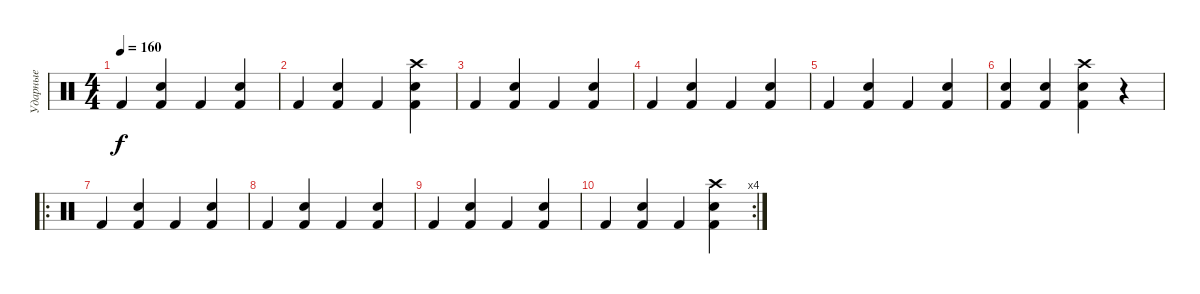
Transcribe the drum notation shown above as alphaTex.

\track ("Ударные" "Ударные") {instrument percussion}
\staff {score}
\articulation defaults
\ts (4 4)
\tempo 160
\clef neutral
\ks c "Kick (hit) 2".4{dy f}
("Kick (hit) 2" "Snare (hit) 2").4 "Kick (hit) 2".4 ("Kick (hit) 2" "Snare (hit) 2").4 |
"Kick (hit) 2".4 ("Kick (hit) 2" "Snare (hit) 2").4 "Kick (hit) 2".4 ("Kick (hit) 2" "Snare (hit) 2" "Crash high (hit)").4 |
"Kick (hit) 2".4 ("Kick (hit) 2" "Snare (hit) 2").4 "Kick (hit) 2".4 ("Kick (hit) 2" "Snare (hit) 2").4 |
"Kick (hit) 2".4 ("Kick (hit) 2" "Snare (hit) 2").4 "Kick (hit) 2".4 ("Kick (hit) 2" "Snare (hit) 2").4 |
"Kick (hit) 2".4 ("Kick (hit) 2" "Snare (hit) 2").4 "Kick (hit) 2".4 ("Kick (hit) 2" "Snare (hit) 2").4 |
("Kick (hit) 2" "Snare (hit) 2").4 ("Kick (hit) 2" "Snare (hit) 2").4 ("Kick (hit) 2" "Snare (hit) 2" "Crash high (hit)").4 r.4 |
\ro "Kick (hit) 2".4
("Kick (hit) 2" "Snare (hit) 2").4 "Kick (hit) 2".4 ("Kick (hit) 2" "Snare (hit) 2").4 |
"Kick (hit) 2".4 ("Kick (hit) 2" "Snare (hit) 2").4 "Kick (hit) 2".4 ("Kick (hit) 2" "Snare (hit) 2").4 |
"Kick (hit) 2".4 ("Kick (hit) 2" "Snare (hit) 2").4 "Kick (hit) 2".4 ("Kick (hit) 2" "Snare (hit) 2").4 |
\rc 4 "Kick (hit) 2".4
("Kick (hit) 2" "Snare (hit) 2").4 "Kick (hit) 2".4 ("Kick (hit) 2" "Snare (hit) 2" "Crash high (hit)").4
